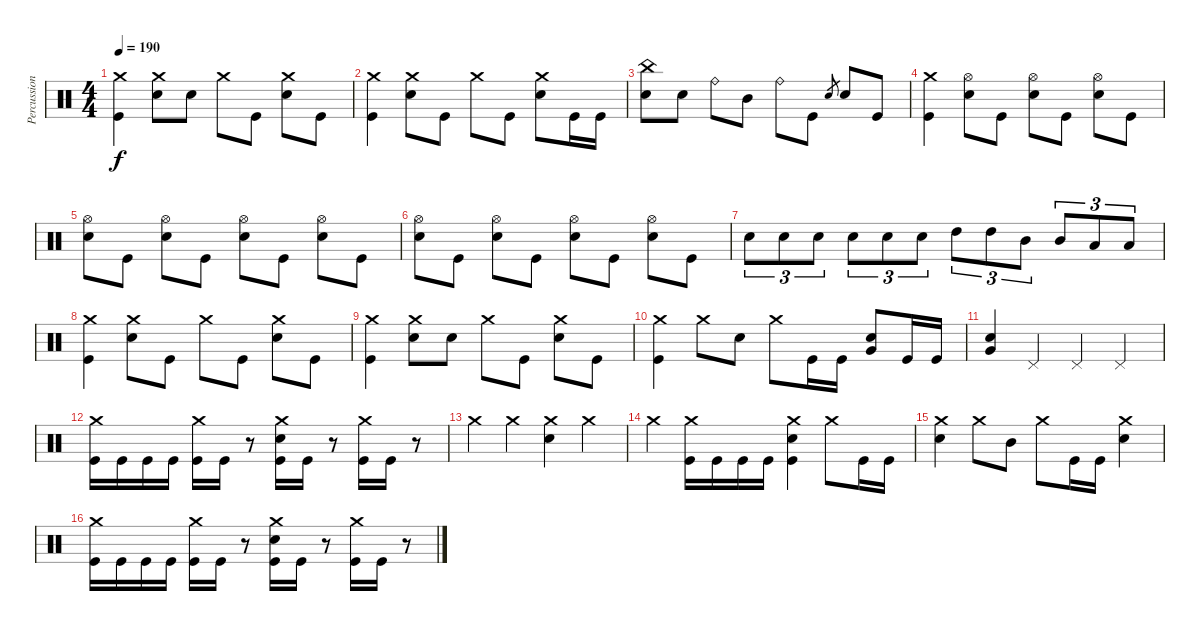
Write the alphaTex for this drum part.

\track ("Percussion" "Percussion") {instrument percussion}
\staff {score}
\articulation defaults
\ts (4 4)
\tempo 190
\clef neutral
\ks c
("Crash medium (hit)" "Kick (hit)").4{dy f} ("Crash medium (hit)" "Snare (hit) 2").8 "Snare (hit) 2".8 "Crash medium (hit)".8 "Kick (hit)".8 ("Crash medium (hit)" "Snare (hit) 2").8 "Kick (hit)".8 |
("Crash medium (hit)" "Kick (hit)").4 ("Crash medium (hit)" "Snare (hit) 2").8 "Kick (hit)".8 "Crash medium (hit)".8 "Kick (hit)".8 ("Crash medium (hit)" "Snare (hit) 2").8 "Kick (hit)".16 "Kick (hit)".16 |
("China (hit)" "Snare (hit) 2").8 "Snare (hit) 2".8 "Ride (bell)".8 "Mid Tom (hit)".8 "Ride (bell)".8 "Kick (hit)".8 "Snare (hit) 2".8{gr} "Snare (hit) 2".8 "Kick (hit)".8 |
("Crash medium (hit)" "Kick (hit)").4 ("Hi-Hat (open)" "Snare (hit) 2").8 "Kick (hit)".8 ("Hi-Hat (open)" "Snare (hit) 2").8 "Kick (hit)".8 ("Hi-Hat (open)" "Snare (hit) 2").8 "Kick (hit)".8 |
("Hi-Hat (open)" "Snare (hit) 2").8 "Kick (hit)".8 ("Hi-Hat (open)" "Snare (hit) 2").8 "Kick (hit)".8 ("Hi-Hat (open)" "Snare (hit) 2").8 "Kick (hit)".8 ("Hi-Hat (open)" "Snare (hit) 2").8 "Kick (hit)".8 |
("Hi-Hat (open)" "Snare (hit) 2").8 "Kick (hit)".8 ("Hi-Hat (open)" "Snare (hit) 2").8 "Kick (hit)".8 ("Hi-Hat (open)" "Snare (hit) 2").8 "Kick (hit)".8 ("Hi-Hat (open)" "Snare (hit) 2").8 "Kick (hit)".8 |
"Snare (hit) 2".8{tu (3 2)} "Snare (hit) 2".8{tu (3 2)} "Snare (hit) 2".8{tu (3 2)} "Snare (hit) 2".8{tu (3 2)} "Snare (hit) 2".8{tu (3 2)} "Snare (hit) 2".8{tu (3 2)} "High Tom (hit)".8{tu (3 2)} "High Tom (hit)".8{tu (3 2)} "Mid Tom (hit)".8{tu (3 2)} "Mid Tom (hit)".8{tu (3 2)} "Low Tom (hit)".8{tu (3 2)} "Low Tom (hit)".8{tu (3 2)} |
("Crash medium (hit)" "Kick (hit)").4 ("Crash medium (hit)" "Snare (hit) 2").8 "Kick (hit)".8 "Crash medium (hit)".8 "Kick (hit)".8 ("Crash medium (hit)" "Snare (hit) 2").8 "Kick (hit)".8 |
("Crash medium (hit)" "Kick (hit)").4 ("Crash medium (hit)" "Snare (hit) 2").8 "Snare (hit) 2".8 "Crash medium (hit)".8 "Kick (hit)".8 ("Crash medium (hit)" "Snare (hit) 2").8 "Kick (hit)".8 |
("Crash medium (hit)" "Kick (hit)").4 "Crash medium (hit)".8 "Snare (hit) 2".8 "Crash medium (hit)".8 "Kick (hit)".16 "Kick (hit)".16 ("Very Low Tom (hit)" "Snare (hit) 2").8 "Kick (hit)".16 "Kick (hit)".16 |
("Very Low Tom (hit)" "Snare (hit) 2").4 "Pedal Hi-Hat (hit)".4 "Pedal Hi-Hat (hit)".4 "Pedal Hi-Hat (hit)".4 |
("Crash medium (hit)" "Kick (hit)").16 "Kick (hit)".16 "Kick (hit)".16 "Kick (hit)".16 ("Crash medium (hit)" "Kick (hit)").16 "Kick (hit)".16 r.8 ("Crash medium (hit)" "Snare (hit) 2" "Kick (hit)").16 "Kick (hit)".16 r.8 ("Crash medium (hit)" "Kick (hit)").16 "Kick (hit)".16 r.8 |
"Crash medium (hit)".4 "Crash medium (hit)".4 ("Crash medium (hit)" "Snare (hit) 2").4 "Crash medium (hit)".4 |
"Crash medium (hit)".4 ("Crash medium (hit)" "Kick (hit)").16 "Kick (hit)".16 "Kick (hit)".16 "Kick (hit)".16 ("Crash medium (hit)" "Snare (hit) 2" "Kick (hit)").4 "Crash medium (hit)".8 "Kick (hit)".16 "Kick (hit)".16 |
("Crash medium (hit)" "Snare (hit) 2").4 "Crash medium (hit)".8 "Mid Tom (hit)".8 "Crash medium (hit)".8 "Kick (hit)".16 "Kick (hit)".16 ("Crash medium (hit)" "Snare (hit) 2").4 |
("Crash medium (hit)" "Kick (hit)").16 "Kick (hit)".16 "Kick (hit)".16 "Kick (hit)".16 ("Crash medium (hit)" "Kick (hit)").16 "Kick (hit)".16 r.8 ("Crash medium (hit)" "Snare (hit) 2" "Kick (hit)").16 "Kick (hit)".16 r.8 ("Crash medium (hit)" "Kick (hit)").16 "Kick (hit)".16 r.8
